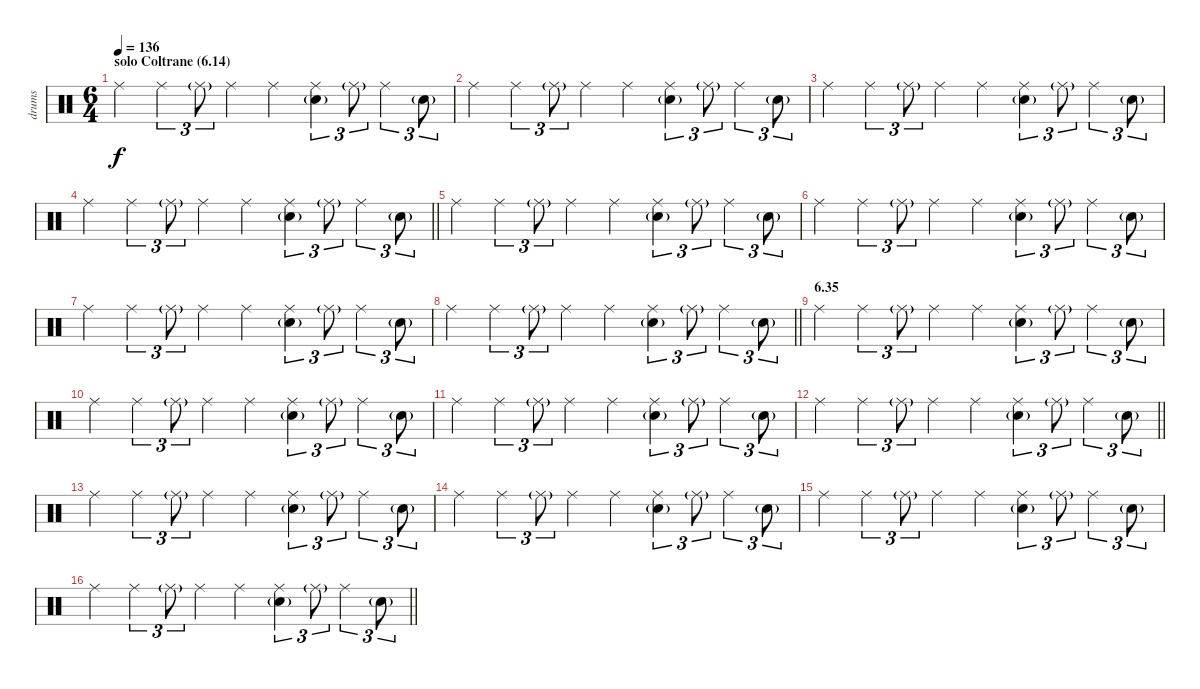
\track ("drums" "drums") {instrument percussion}
\staff {score}
\articulation defaults
\ts (6 4)
\section ("" "solo Coltrane (6.14)")
\tempo 136
\clef neutral
\ks c "Ride (middle)".4{dy f} "Ride (middle)".4{tu (3 2)} "Ride (middle)"{g}.8{tu (3 2)} "Ride (middle)".4 "Ride (middle)".4
("Ride (middle)" "Electric Snare (hit)"{g}).4{tu (3 2)} "Ride (middle)"{g}.8{tu (3 2)} "Ride (middle)".4{tu (3 2)} "Electric Snare (hit)"{g}.8{tu (3 2)} |
"Ride (middle)".4 "Ride (middle)".4{tu (3 2)} "Ride (middle)"{g}.8{tu (3 2)} "Ride (middle)".4 "Ride (middle)".4 ("Ride (middle)" "Electric Snare (hit)"{g}).4{tu (3 2)} "Ride (middle)"{g}.8{tu (3 2)} "Ride (middle)".4{tu (3 2)} "Electric Snare (hit)"{g}.8{tu (3 2)} |
"Ride (middle)".4 "Ride (middle)".4{tu (3 2)} "Ride (middle)"{g}.8{tu (3 2)} "Ride (middle)".4 "Ride (middle)".4 ("Ride (middle)" "Electric Snare (hit)"{g}).4{tu (3 2)} "Ride (middle)"{g}.8{tu (3 2)} "Ride (middle)".4{tu (3 2)} "Electric Snare (hit)"{g}.8{tu (3 2)} |
\barLineRight lightlight "Ride (middle)".4 "Ride (middle)".4{tu (3 2)} "Ride (middle)"{g}.8{tu (3 2)} "Ride (middle)".4 "Ride (middle)".4
("Ride (middle)" "Electric Snare (hit)"{g}).4{tu (3 2)} "Ride (middle)"{g}.8{tu (3 2)} "Ride (middle)".4{tu (3 2)} "Electric Snare (hit)"{g}.8{tu (3 2)} |
"Ride (middle)".4 "Ride (middle)".4{tu (3 2)} "Ride (middle)"{g}.8{tu (3 2)} "Ride (middle)".4 "Ride (middle)".4 ("Ride (middle)" "Electric Snare (hit)"{g}).4{tu (3 2)} "Ride (middle)"{g}.8{tu (3 2)} "Ride (middle)".4{tu (3 2)} "Electric Snare (hit)"{g}.8{tu (3 2)} |
"Ride (middle)".4 "Ride (middle)".4{tu (3 2)} "Ride (middle)"{g}.8{tu (3 2)} "Ride (middle)".4 "Ride (middle)".4 ("Ride (middle)" "Electric Snare (hit)"{g}).4{tu (3 2)} "Ride (middle)"{g}.8{tu (3 2)} "Ride (middle)".4{tu (3 2)} "Electric Snare (hit)"{g}.8{tu (3 2)} |
"Ride (middle)".4 "Ride (middle)".4{tu (3 2)} "Ride (middle)"{g}.8{tu (3 2)} "Ride (middle)".4 "Ride (middle)".4 ("Ride (middle)" "Electric Snare (hit)"{g}).4{tu (3 2)} "Ride (middle)"{g}.8{tu (3 2)} "Ride (middle)".4{tu (3 2)} "Electric Snare (hit)"{g}.8{tu (3 2)} |
\barLineRight lightlight "Ride (middle)".4 "Ride (middle)".4{tu (3 2)} "Ride (middle)"{g}.8{tu (3 2)} "Ride (middle)".4 "Ride (middle)".4
("Ride (middle)" "Electric Snare (hit)"{g}).4{tu (3 2)} "Ride (middle)"{g}.8{tu (3 2)} "Ride (middle)".4{tu (3 2)} "Electric Snare (hit)"{g}.8{tu (3 2)} |
\section ("" "6.35")
"Ride (middle)".4 "Ride (middle)".4{tu (3 2)} "Ride (middle)"{g}.8{tu (3 2)} "Ride (middle)".4 "Ride (middle)".4 ("Ride (middle)" "Electric Snare (hit)"{g}).4{tu (3 2)} "Ride (middle)"{g}.8{tu (3 2)} "Ride (middle)".4{tu (3 2)} "Electric Snare (hit)"{g}.8{tu (3 2)} |
"Ride (middle)".4 "Ride (middle)".4{tu (3 2)} "Ride (middle)"{g}.8{tu (3 2)} "Ride (middle)".4 "Ride (middle)".4 ("Ride (middle)" "Electric Snare (hit)"{g}).4{tu (3 2)} "Ride (middle)"{g}.8{tu (3 2)} "Ride (middle)".4{tu (3 2)} "Electric Snare (hit)"{g}.8{tu (3 2)} |
"Ride (middle)".4 "Ride (middle)".4{tu (3 2)} "Ride (middle)"{g}.8{tu (3 2)} "Ride (middle)".4 "Ride (middle)".4 ("Ride (middle)" "Electric Snare (hit)"{g}).4{tu (3 2)} "Ride (middle)"{g}.8{tu (3 2)} "Ride (middle)".4{tu (3 2)} "Electric Snare (hit)"{g}.8{tu (3 2)} |
\barLineRight lightlight "Ride (middle)".4 "Ride (middle)".4{tu (3 2)} "Ride (middle)"{g}.8{tu (3 2)} "Ride (middle)".4 "Ride (middle)".4
("Ride (middle)" "Electric Snare (hit)"{g}).4{tu (3 2)} "Ride (middle)"{g}.8{tu (3 2)} "Ride (middle)".4{tu (3 2)} "Electric Snare (hit)"{g}.8{tu (3 2)} |
"Ride (middle)".4 "Ride (middle)".4{tu (3 2)} "Ride (middle)"{g}.8{tu (3 2)} "Ride (middle)".4 "Ride (middle)".4 ("Ride (middle)" "Electric Snare (hit)"{g}).4{tu (3 2)} "Ride (middle)"{g}.8{tu (3 2)} "Ride (middle)".4{tu (3 2)} "Electric Snare (hit)"{g}.8{tu (3 2)} |
"Ride (middle)".4 "Ride (middle)".4{tu (3 2)} "Ride (middle)"{g}.8{tu (3 2)} "Ride (middle)".4 "Ride (middle)".4 ("Ride (middle)" "Electric Snare (hit)"{g}).4{tu (3 2)} "Ride (middle)"{g}.8{tu (3 2)} "Ride (middle)".4{tu (3 2)} "Electric Snare (hit)"{g}.8{tu (3 2)} |
"Ride (middle)".4 "Ride (middle)".4{tu (3 2)} "Ride (middle)"{g}.8{tu (3 2)} "Ride (middle)".4 "Ride (middle)".4 ("Ride (middle)" "Electric Snare (hit)"{g}).4{tu (3 2)} "Ride (middle)"{g}.8{tu (3 2)} "Ride (middle)".4{tu (3 2)} "Electric Snare (hit)"{g}.8{tu (3 2)} |
\barLineRight lightlight "Ride (middle)".4 "Ride (middle)".4{tu (3 2)} "Ride (middle)"{g}.8{tu (3 2)} "Ride (middle)".4 "Ride (middle)".4
("Ride (middle)" "Electric Snare (hit)"{g}).4{tu (3 2)} "Ride (middle)"{g}.8{tu (3 2)} "Ride (middle)".4{tu (3 2)} "Electric Snare (hit)"{g}.8{tu (3 2)}
